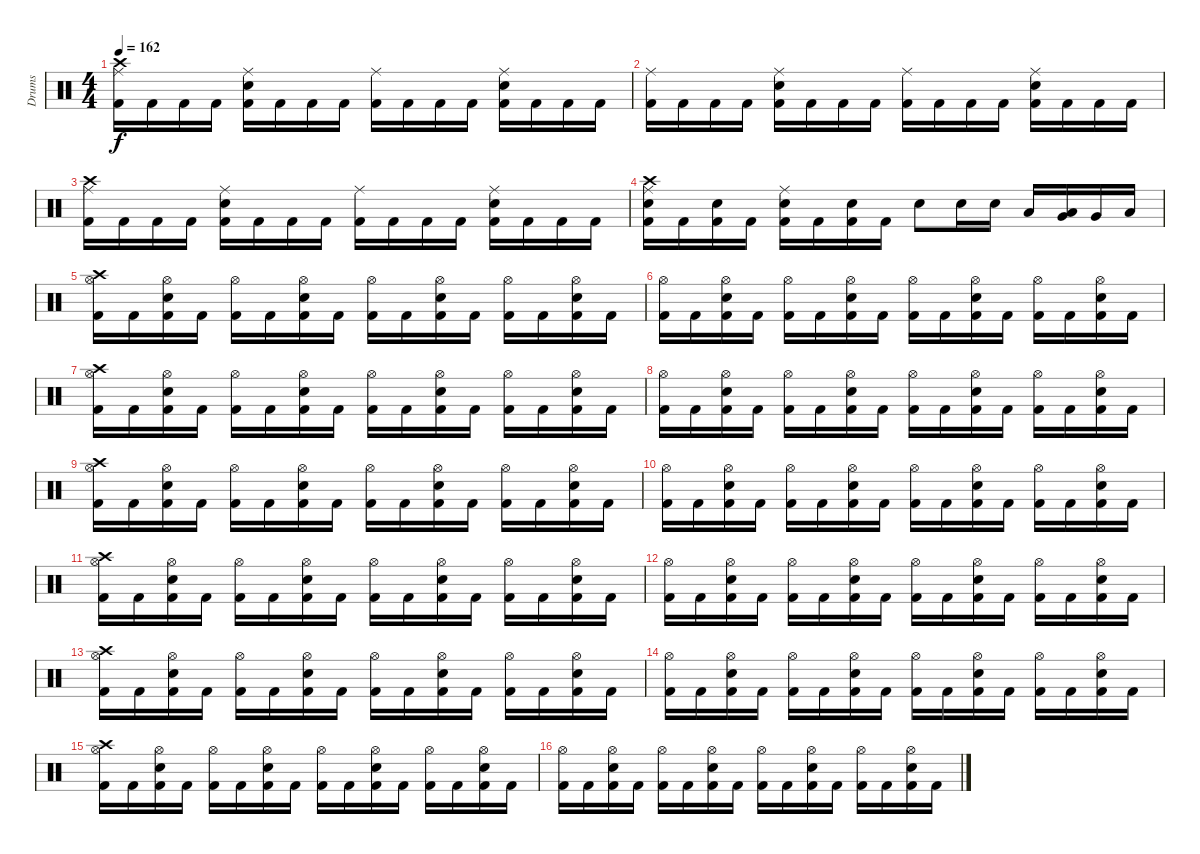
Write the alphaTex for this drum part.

\track ("Drums" "Drums") {instrument percussion}
\staff {score}
\articulation defaults
\ts (4 4)
\tempo 162
\clef neutral
\ks c
("Crash high (hit)" "Ride (middle)" "Kick (hit) 2").16{dy f} "Kick (hit) 2".16 "Kick (hit) 2".16 "Kick (hit) 2".16 ("Ride (middle)" "Electric Snare (hit)" "Kick (hit) 2").16 "Kick (hit) 2".16 "Kick (hit) 2".16 "Kick (hit) 2".16 ("Ride (middle)" "Kick (hit) 2").16 "Kick (hit) 2".16 "Kick (hit) 2".16 "Kick (hit) 2".16 ("Ride (middle)" "Electric Snare (hit)" "Kick (hit) 2").16 "Kick (hit) 2".16 "Kick (hit) 2".16 "Kick (hit) 2".16 |
("Ride (middle)" "Kick (hit) 2").16 "Kick (hit) 2".16 "Kick (hit) 2".16 "Kick (hit) 2".16 ("Ride (middle)" "Electric Snare (hit)" "Kick (hit) 2").16 "Kick (hit) 2".16 "Kick (hit) 2".16 "Kick (hit) 2".16 ("Ride (middle)" "Kick (hit) 2").16 "Kick (hit) 2".16 "Kick (hit) 2".16 "Kick (hit) 2".16 ("Ride (middle)" "Electric Snare (hit)" "Kick (hit) 2").16 "Kick (hit) 2".16 "Kick (hit) 2".16 "Kick (hit) 2".16 |
("Crash high (hit)" "Ride (middle)" "Kick (hit) 2").16 "Kick (hit) 2".16 "Kick (hit) 2".16 "Kick (hit) 2".16 ("Ride (middle)" "Electric Snare (hit)" "Kick (hit) 2").16 "Kick (hit) 2".16 "Kick (hit) 2".16 "Kick (hit) 2".16 ("Ride (middle)" "Kick (hit) 2").16 "Kick (hit) 2".16 "Kick (hit) 2".16 "Kick (hit) 2".16 ("Ride (middle)" "Electric Snare (hit)" "Kick (hit) 2").16 "Kick (hit) 2".16 "Kick (hit) 2".16 "Kick (hit) 2".16 |
("Crash high (hit)" "Electric Snare (hit)" "Ride (middle)" "Kick (hit) 2").16 "Kick (hit) 2".16 ("Electric Snare (hit)" "Kick (hit) 2").16 "Kick (hit) 2".16 ("Electric Snare (hit)" "Ride (middle)" "Kick (hit) 2").16 "Kick (hit) 2".16 ("Electric Snare (hit)" "Kick (hit) 2").16 "Kick (hit) 2".16 "Electric Snare (hit)".8 "Electric Snare (hit)".16 "Electric Snare (hit)".16 "Low Tom (hit)".16 ("Very Low Tom (hit)" "Low Tom (hit)").16 "Very Low Tom (hit)".16 "Low Floor Tom (hit)".16 |
("Crash high (hit)" "Hi-Hat (open)" "Kick (hit) 2").16 "Kick (hit) 2".16 ("Electric Snare (hit)" "Hi-Hat (open)" "Kick (hit) 2").16 "Kick (hit) 2".16 ("Hi-Hat (open)" "Kick (hit) 2").16 "Kick (hit) 2".16 ("Electric Snare (hit)" "Hi-Hat (open)" "Kick (hit) 2").16 "Kick (hit) 2".16 ("Hi-Hat (open)" "Kick (hit) 2").16 "Kick (hit) 2".16 ("Electric Snare (hit)" "Hi-Hat (open)" "Kick (hit) 2").16 "Kick (hit) 2".16 ("Hi-Hat (open)" "Kick (hit) 2").16 "Kick (hit) 2".16 ("Electric Snare (hit)" "Hi-Hat (open)" "Kick (hit) 2").16 "Kick (hit) 2".16 |
("Hi-Hat (open)" "Kick (hit) 2").16 "Kick (hit) 2".16 ("Electric Snare (hit)" "Hi-Hat (open)" "Kick (hit) 2").16 "Kick (hit) 2".16 ("Hi-Hat (open)" "Kick (hit) 2").16 "Kick (hit) 2".16 ("Electric Snare (hit)" "Hi-Hat (open)" "Kick (hit) 2").16 "Kick (hit) 2".16 ("Hi-Hat (open)" "Kick (hit) 2").16 "Kick (hit) 2".16 ("Electric Snare (hit)" "Hi-Hat (open)" "Kick (hit) 2").16 "Kick (hit) 2".16 ("Hi-Hat (open)" "Kick (hit) 2").16 "Kick (hit) 2".16 ("Electric Snare (hit)" "Hi-Hat (open)" "Kick (hit) 2").16 "Kick (hit) 2".16 |
("Crash high (hit)" "Hi-Hat (open)" "Kick (hit) 2").16 "Kick (hit) 2".16 ("Electric Snare (hit)" "Hi-Hat (open)" "Kick (hit) 2").16 "Kick (hit) 2".16 ("Hi-Hat (open)" "Kick (hit) 2").16 "Kick (hit) 2".16 ("Electric Snare (hit)" "Hi-Hat (open)" "Kick (hit) 2").16 "Kick (hit) 2".16 ("Hi-Hat (open)" "Kick (hit) 2").16 "Kick (hit) 2".16 ("Electric Snare (hit)" "Hi-Hat (open)" "Kick (hit) 2").16 "Kick (hit) 2".16 ("Hi-Hat (open)" "Kick (hit) 2").16 "Kick (hit) 2".16 ("Electric Snare (hit)" "Hi-Hat (open)" "Kick (hit) 2").16 "Kick (hit) 2".16 |
("Hi-Hat (open)" "Kick (hit) 2").16 "Kick (hit) 2".16 ("Electric Snare (hit)" "Hi-Hat (open)" "Kick (hit) 2").16 "Kick (hit) 2".16 ("Hi-Hat (open)" "Kick (hit) 2").16 "Kick (hit) 2".16 ("Electric Snare (hit)" "Hi-Hat (open)" "Kick (hit) 2").16 "Kick (hit) 2".16 ("Hi-Hat (open)" "Kick (hit) 2").16 "Kick (hit) 2".16 ("Electric Snare (hit)" "Hi-Hat (open)" "Kick (hit) 2").16 "Kick (hit) 2".16 ("Hi-Hat (open)" "Kick (hit) 2").16 "Kick (hit) 2".16 ("Electric Snare (hit)" "Hi-Hat (open)" "Kick (hit) 2").16 "Kick (hit) 2".16 |
("Crash high (hit)" "Hi-Hat (open)" "Kick (hit) 2").16 "Kick (hit) 2".16 ("Electric Snare (hit)" "Hi-Hat (open)" "Kick (hit) 2").16 "Kick (hit) 2".16 ("Hi-Hat (open)" "Kick (hit) 2").16 "Kick (hit) 2".16 ("Electric Snare (hit)" "Hi-Hat (open)" "Kick (hit) 2").16 "Kick (hit) 2".16 ("Hi-Hat (open)" "Kick (hit) 2").16 "Kick (hit) 2".16 ("Electric Snare (hit)" "Hi-Hat (open)" "Kick (hit) 2").16 "Kick (hit) 2".16 ("Hi-Hat (open)" "Kick (hit) 2").16 "Kick (hit) 2".16 ("Electric Snare (hit)" "Hi-Hat (open)" "Kick (hit) 2").16 "Kick (hit) 2".16 |
("Hi-Hat (open)" "Kick (hit) 2").16 "Kick (hit) 2".16 ("Electric Snare (hit)" "Hi-Hat (open)" "Kick (hit) 2").16 "Kick (hit) 2".16 ("Hi-Hat (open)" "Kick (hit) 2").16 "Kick (hit) 2".16 ("Electric Snare (hit)" "Hi-Hat (open)" "Kick (hit) 2").16 "Kick (hit) 2".16 ("Hi-Hat (open)" "Kick (hit) 2").16 "Kick (hit) 2".16 ("Electric Snare (hit)" "Hi-Hat (open)" "Kick (hit) 2").16 "Kick (hit) 2".16 ("Hi-Hat (open)" "Kick (hit) 2").16 "Kick (hit) 2".16 ("Electric Snare (hit)" "Hi-Hat (open)" "Kick (hit) 2").16 "Kick (hit) 2".16 |
("Crash high (hit)" "Hi-Hat (open)" "Kick (hit) 2").16 "Kick (hit) 2".16 ("Electric Snare (hit)" "Hi-Hat (open)" "Kick (hit) 2").16 "Kick (hit) 2".16 ("Hi-Hat (open)" "Kick (hit) 2").16 "Kick (hit) 2".16 ("Electric Snare (hit)" "Hi-Hat (open)" "Kick (hit) 2").16 "Kick (hit) 2".16 ("Hi-Hat (open)" "Kick (hit) 2").16 "Kick (hit) 2".16 ("Electric Snare (hit)" "Hi-Hat (open)" "Kick (hit) 2").16 "Kick (hit) 2".16 ("Hi-Hat (open)" "Kick (hit) 2").16 "Kick (hit) 2".16 ("Electric Snare (hit)" "Hi-Hat (open)" "Kick (hit) 2").16 "Kick (hit) 2".16 |
("Hi-Hat (open)" "Kick (hit) 2").16 "Kick (hit) 2".16 ("Electric Snare (hit)" "Hi-Hat (open)" "Kick (hit) 2").16 "Kick (hit) 2".16 ("Hi-Hat (open)" "Kick (hit) 2").16 "Kick (hit) 2".16 ("Electric Snare (hit)" "Hi-Hat (open)" "Kick (hit) 2").16 "Kick (hit) 2".16 ("Hi-Hat (open)" "Kick (hit) 2").16 "Kick (hit) 2".16 ("Electric Snare (hit)" "Hi-Hat (open)" "Kick (hit) 2").16 "Kick (hit) 2".16 ("Hi-Hat (open)" "Kick (hit) 2").16 "Kick (hit) 2".16 ("Electric Snare (hit)" "Hi-Hat (open)" "Kick (hit) 2").16 "Kick (hit) 2".16 |
("Crash high (hit)" "Hi-Hat (open)" "Kick (hit) 2").16 "Kick (hit) 2".16 ("Electric Snare (hit)" "Hi-Hat (open)" "Kick (hit) 2").16 "Kick (hit) 2".16 ("Hi-Hat (open)" "Kick (hit) 2").16 "Kick (hit) 2".16 ("Electric Snare (hit)" "Hi-Hat (open)" "Kick (hit) 2").16 "Kick (hit) 2".16 ("Hi-Hat (open)" "Kick (hit) 2").16 "Kick (hit) 2".16 ("Electric Snare (hit)" "Hi-Hat (open)" "Kick (hit) 2").16 "Kick (hit) 2".16 ("Hi-Hat (open)" "Kick (hit) 2").16 "Kick (hit) 2".16 ("Electric Snare (hit)" "Hi-Hat (open)" "Kick (hit) 2").16 "Kick (hit) 2".16 |
("Hi-Hat (open)" "Kick (hit) 2").16 "Kick (hit) 2".16 ("Electric Snare (hit)" "Hi-Hat (open)" "Kick (hit) 2").16 "Kick (hit) 2".16 ("Hi-Hat (open)" "Kick (hit) 2").16 "Kick (hit) 2".16 ("Electric Snare (hit)" "Hi-Hat (open)" "Kick (hit) 2").16 "Kick (hit) 2".16 ("Hi-Hat (open)" "Kick (hit) 2").16 "Kick (hit) 2".16 ("Electric Snare (hit)" "Hi-Hat (open)" "Kick (hit) 2").16 "Kick (hit) 2".16 ("Hi-Hat (open)" "Kick (hit) 2").16 "Kick (hit) 2".16 ("Electric Snare (hit)" "Hi-Hat (open)" "Kick (hit) 2").16 "Kick (hit) 2".16 |
("Crash high (hit)" "Hi-Hat (open)" "Kick (hit) 2").16 "Kick (hit) 2".16 ("Electric Snare (hit)" "Hi-Hat (open)" "Kick (hit) 2").16 "Kick (hit) 2".16 ("Hi-Hat (open)" "Kick (hit) 2").16 "Kick (hit) 2".16 ("Electric Snare (hit)" "Hi-Hat (open)" "Kick (hit) 2").16 "Kick (hit) 2".16 ("Hi-Hat (open)" "Kick (hit) 2").16 "Kick (hit) 2".16 ("Electric Snare (hit)" "Hi-Hat (open)" "Kick (hit) 2").16 "Kick (hit) 2".16 ("Hi-Hat (open)" "Kick (hit) 2").16 "Kick (hit) 2".16 ("Electric Snare (hit)" "Hi-Hat (open)" "Kick (hit) 2").16 "Kick (hit) 2".16 |
("Hi-Hat (open)" "Kick (hit) 2").16 "Kick (hit) 2".16 ("Electric Snare (hit)" "Hi-Hat (open)" "Kick (hit) 2").16 "Kick (hit) 2".16 ("Hi-Hat (open)" "Kick (hit) 2").16 "Kick (hit) 2".16 ("Electric Snare (hit)" "Hi-Hat (open)" "Kick (hit) 2").16 "Kick (hit) 2".16 ("Hi-Hat (open)" "Kick (hit) 2").16 "Kick (hit) 2".16 ("Electric Snare (hit)" "Hi-Hat (open)" "Kick (hit) 2").16 "Kick (hit) 2".16 ("Hi-Hat (open)" "Kick (hit) 2").16 "Kick (hit) 2".16 ("Electric Snare (hit)" "Hi-Hat (open)" "Kick (hit) 2").16 "Kick (hit) 2".16
